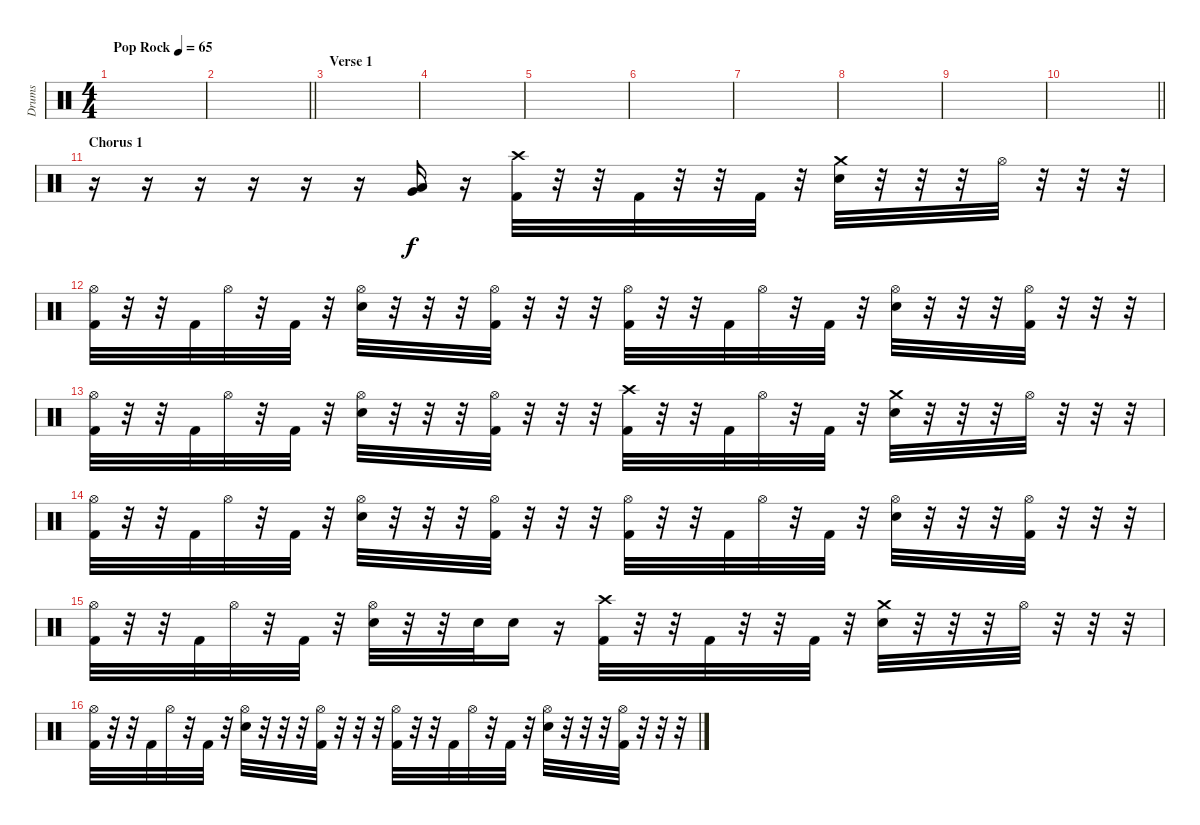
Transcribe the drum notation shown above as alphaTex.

\track ("Drums" "Drums") {instrument percussion}
\staff {score}
\articulation defaults
\ts (4 4)
\tempo (65 "Pop Rock")
\clef neutral
\ks c
|
\barLineRight lightlight
|
\section ("" "Verse 1")
|
|
|
|
|
|
|
\barLineRight lightlight
|
\section ("" "Chorus 1")
r.16 r.16 r.16 r.16 r.16 r.16 ("Low Tom (hit)" "Very Low Tom (hit)").16 r.16 ("Crash high (hit)" "Kick (hit) 2").32 r.32 r.32 "Kick (hit) 2".32 r.32 r.32 "Kick (hit) 2".32 r.32 ("Crash medium (hit)" "Snare (hit) 2").32 r.32 r.32 r.32 "Hi-Hat (open)".32 r.32 r.32 r.32 |
("Hi-Hat (open)" "Kick (hit) 2").32 r.32 r.32 "Kick (hit) 2".32 "Hi-Hat (open)".32 r.32 "Kick (hit) 2".32 r.32 ("Hi-Hat (open)" "Snare (hit) 2").32 r.32 r.32 r.32 ("Hi-Hat (open)" "Kick (hit) 2").32 r.32 r.32 r.32 ("Hi-Hat (open)" "Kick (hit) 2").32 r.32 r.32 "Kick (hit) 2".32 "Hi-Hat (open)".32 r.32 "Kick (hit) 2".32 r.32 ("Hi-Hat (open)" "Snare (hit) 2").32 r.32 r.32 r.32 ("Hi-Hat (open)" "Kick (hit) 2").32 r.32 r.32 r.32 |
("Hi-Hat (open)" "Kick (hit) 2").32 r.32 r.32 "Kick (hit) 2".32 "Hi-Hat (open)".32 r.32 "Kick (hit) 2".32 r.32 ("Hi-Hat (open)" "Snare (hit) 2").32 r.32 r.32 r.32 ("Hi-Hat (open)" "Kick (hit) 2").32 r.32 r.32 r.32 ("Crash high (hit)" "Kick (hit) 2").32 r.32 r.32 "Kick (hit) 2".32 "Hi-Hat (open)".32 r.32 "Kick (hit) 2".32 r.32 ("Crash medium (hit)" "Snare (hit) 2").32 r.32 r.32 r.32 "Hi-Hat (open)".32 r.32 r.32 r.32 |
("Hi-Hat (open)" "Kick (hit) 2").32 r.32 r.32 "Kick (hit) 2".32 "Hi-Hat (open)".32 r.32 "Kick (hit) 2".32 r.32 ("Hi-Hat (open)" "Snare (hit) 2").32 r.32 r.32 r.32 ("Hi-Hat (open)" "Kick (hit) 2").32 r.32 r.32 r.32 ("Hi-Hat (open)" "Kick (hit) 2").32 r.32 r.32 "Kick (hit) 2".32 "Hi-Hat (open)".32 r.32 "Kick (hit) 2".32 r.32 ("Hi-Hat (open)" "Snare (hit) 2").32 r.32 r.32 r.32 ("Hi-Hat (open)" "Kick (hit) 2").32 r.32 r.32 r.32 |
("Hi-Hat (open)" "Kick (hit) 2").32 r.32 r.32 "Kick (hit) 2".32 "Hi-Hat (open)".32 r.32 "Kick (hit) 2".32 r.32 ("Hi-Hat (open)" "Snare (hit) 2").32 r.32 r.32 "Snare (hit) 2".32 "Snare (hit) 2".16 r.16 ("Crash high (hit)" "Kick (hit) 2").32 r.32 r.32 "Kick (hit) 2".32 r.32 r.32 "Kick (hit) 2".32 r.32 ("Crash medium (hit)" "Snare (hit) 2").32 r.32 r.32 r.32 "Hi-Hat (open)".32 r.32 r.32 r.32 |
("Hi-Hat (open)" "Kick (hit) 2").32 r.32 r.32 "Kick (hit) 2".32 "Hi-Hat (open)".32 r.32 "Kick (hit) 2".32 r.32 ("Hi-Hat (open)" "Snare (hit) 2").32 r.32 r.32 r.32 ("Hi-Hat (open)" "Kick (hit) 2").32 r.32 r.32 r.32 ("Hi-Hat (open)" "Kick (hit) 2").32 r.32 r.32 "Kick (hit) 2".32 "Hi-Hat (open)".32 r.32 "Kick (hit) 2".32 r.32 ("Hi-Hat (open)" "Snare (hit) 2").32 r.32 r.32 r.32 ("Hi-Hat (open)" "Kick (hit) 2").32 r.32 r.32 r.32
